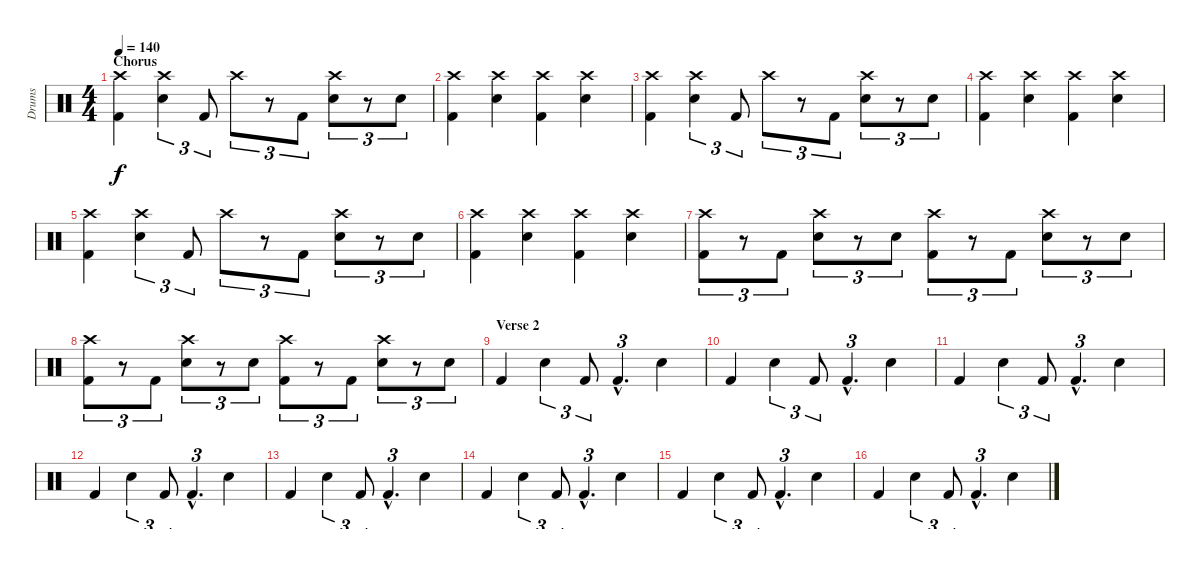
\track ("Drums" "Drums") {instrument percussion}
\staff {score}
\articulation defaults
\ts (4 4)
\section ("" "Chorus")
\tempo 140
\clef neutral
\ks c
("Crash high (hit)" "Kick (hit) 2").4{dy f} ("Crash high (hit)" "Snare (hit) 2").4{tu (3 2)} "Kick (hit) 2".8{tu (3 2)} "Crash high (hit)".8{tu (3 2)} r.8{tu (3 2)} "Kick (hit) 2".8{tu (3 2)} ("Crash high (hit)" "Snare (hit) 2").8{tu (3 2)} r.8{tu (3 2)} "Snare (hit) 2".8{tu (3 2)} |
("Crash high (hit)" "Kick (hit) 2").4 ("Crash high (hit)" "Snare (hit) 2").4 ("Crash high (hit)" "Kick (hit) 2").4 ("Crash high (hit)" "Snare (hit) 2").4 |
("Crash high (hit)" "Kick (hit) 2").4 ("Crash high (hit)" "Snare (hit) 2").4{tu (3 2)} "Kick (hit) 2".8{tu (3 2)} "Crash high (hit)".8{tu (3 2)} r.8{tu (3 2)} "Kick (hit) 2".8{tu (3 2)} ("Crash high (hit)" "Snare (hit) 2").8{tu (3 2)} r.8{tu (3 2)} "Snare (hit) 2".8{tu (3 2)} |
("Crash high (hit)" "Kick (hit) 2").4 ("Crash high (hit)" "Snare (hit) 2").4 ("Crash high (hit)" "Kick (hit) 2").4 ("Crash high (hit)" "Snare (hit) 2").4 |
("Crash high (hit)" "Kick (hit) 2").4 ("Crash high (hit)" "Snare (hit) 2").4{tu (3 2)} "Kick (hit) 2".8{tu (3 2)} "Crash high (hit)".8{tu (3 2)} r.8{tu (3 2)} "Kick (hit) 2".8{tu (3 2)} ("Crash high (hit)" "Snare (hit) 2").8{tu (3 2)} r.8{tu (3 2)} "Snare (hit) 2".8{tu (3 2)} |
("Crash high (hit)" "Kick (hit) 2").4 ("Crash high (hit)" "Snare (hit) 2").4 ("Crash high (hit)" "Kick (hit) 2").4 ("Crash high (hit)" "Snare (hit) 2").4 |
("Crash high (hit)" "Kick (hit) 2").8{tu (3 2)} r.8{tu (3 2)} "Kick (hit) 2".8{tu (3 2)} ("Crash high (hit)" "Snare (hit) 2").8{tu (3 2)} r.8{tu (3 2)} "Snare (hit) 2".8{tu (3 2)} ("Crash high (hit)" "Kick (hit) 2").8{tu (3 2)} r.8{tu (3 2)} "Kick (hit) 2".8{tu (3 2)} ("Crash high (hit)" "Snare (hit) 2").8{tu (3 2)} r.8{tu (3 2)} "Snare (hit) 2".8{tu (3 2)} |
("Crash high (hit)" "Kick (hit) 2").8{tu (3 2)} r.8{tu (3 2)} "Kick (hit) 2".8{tu (3 2)} ("Crash high (hit)" "Snare (hit) 2").8{tu (3 2)} r.8{tu (3 2)} "Snare (hit) 2".8{tu (3 2)} ("Crash high (hit)" "Kick (hit) 2").8{tu (3 2)} r.8{tu (3 2)} "Kick (hit) 2".8{tu (3 2)} ("Crash high (hit)" "Snare (hit) 2").8{tu (3 2)} r.8{tu (3 2)} "Snare (hit) 2".8{tu (3 2)} |
\section ("" "Verse 2")
"Kick (hit) 2".4 "Snare (hit) 2".4{tu (3 2)} "Kick (hit) 2".8{tu (3 2)} "Kick (hit) 2"{hac}.4{d tu (3 2)} "Snare (hit) 2".4 |
"Kick (hit) 2".4 "Snare (hit) 2".4{tu (3 2)} "Kick (hit) 2".8{tu (3 2)} "Kick (hit) 2"{hac}.4{d tu (3 2)} "Snare (hit) 2".4 |
"Kick (hit) 2".4 "Snare (hit) 2".4{tu (3 2)} "Kick (hit) 2".8{tu (3 2)} "Kick (hit) 2"{hac}.4{d tu (3 2)} "Snare (hit) 2".4 |
"Kick (hit) 2".4 "Snare (hit) 2".4{tu (3 2)} "Kick (hit) 2".8{tu (3 2)} "Kick (hit) 2"{hac}.4{d tu (3 2)} "Snare (hit) 2".4 |
"Kick (hit) 2".4 "Snare (hit) 2".4{tu (3 2)} "Kick (hit) 2".8{tu (3 2)} "Kick (hit) 2"{hac}.4{d tu (3 2)} "Snare (hit) 2".4 |
"Kick (hit) 2".4 "Snare (hit) 2".4{tu (3 2)} "Kick (hit) 2".8{tu (3 2)} "Kick (hit) 2"{hac}.4{d tu (3 2)} "Snare (hit) 2".4 |
"Kick (hit) 2".4 "Snare (hit) 2".4{tu (3 2)} "Kick (hit) 2".8{tu (3 2)} "Kick (hit) 2"{hac}.4{d tu (3 2)} "Snare (hit) 2".4 |
"Kick (hit) 2".4 "Snare (hit) 2".4{tu (3 2)} "Kick (hit) 2".8{tu (3 2)} "Kick (hit) 2"{hac}.4{d tu (3 2)} "Snare (hit) 2".4
